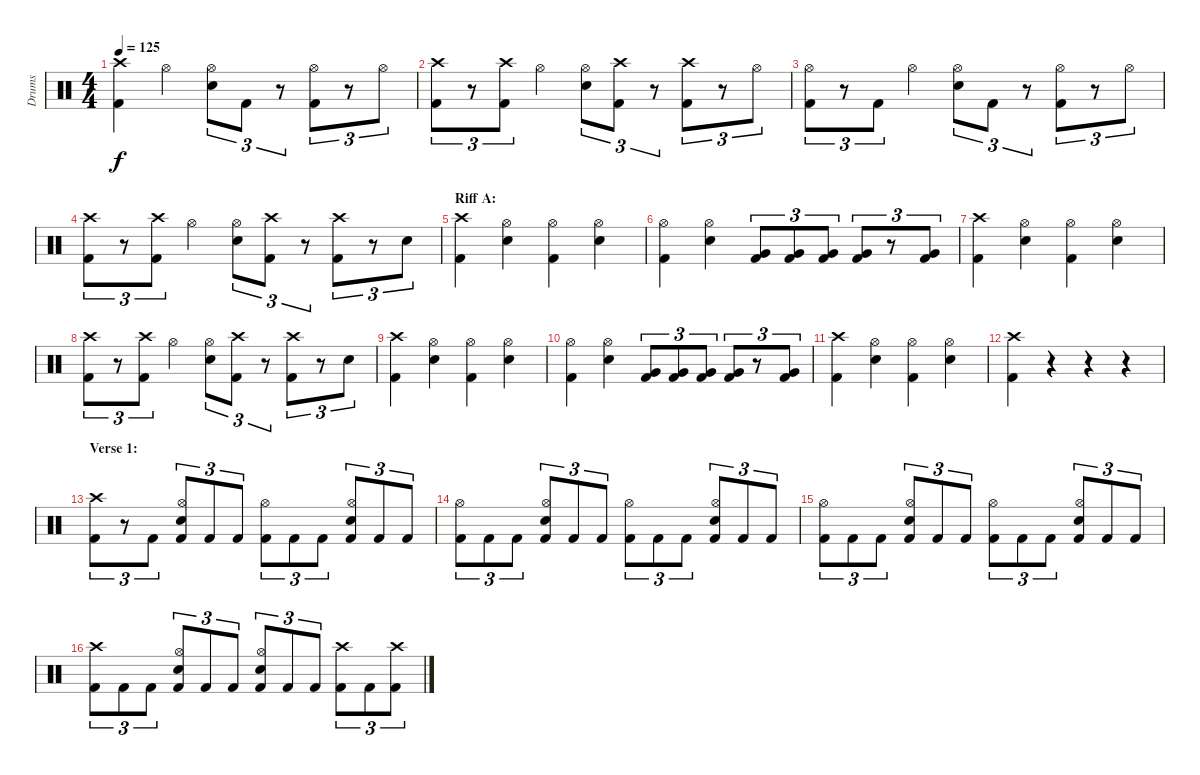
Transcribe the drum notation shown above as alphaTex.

\track ("Drums" "Drums") {instrument percussion}
\staff {score}
\articulation defaults
\ts (4 4)
\tempo 125
\clef neutral
\ks c
("Crash high (hit)" "Kick (hit) 2").4{dy f} "Hi-Hat (open)".4 ("Hi-Hat (open)" "Electric Snare (hit)").8{tu (3 2)} "Kick (hit) 2".8{tu (3 2)} r.8{tu (3 2)} ("Hi-Hat (open)" "Kick (hit) 2").8{tu (3 2)} r.8{tu (3 2)} "Hi-Hat (open)".8{tu (3 2)} |
("Crash high (hit)" "Kick (hit) 2").8{tu (3 2)} r.8{tu (3 2)} ("Crash high (hit)" "Kick (hit) 2").8{tu (3 2)} "Hi-Hat (open)".4 ("Hi-Hat (open)" "Electric Snare (hit)").8{tu (3 2)} ("Crash high (hit)" "Kick (hit) 2").8{tu (3 2)} r.8{tu (3 2)} ("Crash high (hit)" "Kick (hit) 2").8{tu (3 2)} r.8{tu (3 2)} "Hi-Hat (open)".8{tu (3 2)} |
("Hi-Hat (open)" "Kick (hit) 2").8{tu (3 2)} r.8{tu (3 2)} "Kick (hit) 2".8{tu (3 2)} "Hi-Hat (open)".4 ("Hi-Hat (open)" "Electric Snare (hit)").8{tu (3 2)} "Kick (hit) 2".8{tu (3 2)} r.8{tu (3 2)} ("Hi-Hat (open)" "Kick (hit) 2").8{tu (3 2)} r.8{tu (3 2)} "Hi-Hat (open)".8{tu (3 2)} |
("Crash high (hit)" "Kick (hit) 2").8{tu (3 2)} r.8{tu (3 2)} ("Crash high (hit)" "Kick (hit) 2").8{tu (3 2)} "Hi-Hat (open)".4 ("Hi-Hat (open)" "Electric Snare (hit)").8{tu (3 2)} ("Crash high (hit)" "Kick (hit) 2").8{tu (3 2)} r.8{tu (3 2)} ("Crash high (hit)" "Kick (hit) 2").8{tu (3 2)} r.8{tu (3 2)} "Electric Snare (hit)".8{tu (3 2)} |
\section ("" "Riff A:")
("Crash high (hit)" "Kick (hit) 2").4 ("Hi-Hat (open)" "Electric Snare (hit)").4 ("Hi-Hat (open)" "Kick (hit) 2").4 ("Hi-Hat (open)" "Electric Snare (hit)").4 |
("Hi-Hat (open)" "Kick (hit) 2").4 ("Hi-Hat (open)" "Electric Snare (hit)").4 ("Very Low Tom (hit)" "Kick (hit) 2").8{tu (3 2)} ("Very Low Tom (hit)" "Kick (hit) 2").8{tu (3 2)} ("Very Low Tom (hit)" "Kick (hit) 2").8{tu (3 2)} ("Very Low Tom (hit)" "Kick (hit) 2").8{tu (3 2)} r.8{tu (3 2)} ("Very Low Tom (hit)" "Kick (hit) 2").8{tu (3 2)} |
("Crash high (hit)" "Kick (hit) 2").4 ("Hi-Hat (open)" "Electric Snare (hit)").4 ("Hi-Hat (open)" "Kick (hit) 2").4 ("Hi-Hat (open)" "Electric Snare (hit)").4 |
("Crash high (hit)" "Kick (hit) 2").8{tu (3 2)} r.8{tu (3 2)} ("Crash high (hit)" "Kick (hit) 2").8{tu (3 2)} "Hi-Hat (open)".4 ("Hi-Hat (open)" "Electric Snare (hit)").8{tu (3 2)} ("Crash high (hit)" "Kick (hit) 2").8{tu (3 2)} r.8{tu (3 2)} ("Crash high (hit)" "Kick (hit) 2").8{tu (3 2)} r.8{tu (3 2)} "Electric Snare (hit)".8{tu (3 2)} |
("Crash high (hit)" "Kick (hit) 2").4 ("Hi-Hat (open)" "Electric Snare (hit)").4 ("Hi-Hat (open)" "Kick (hit) 2").4 ("Hi-Hat (open)" "Electric Snare (hit)").4 |
("Hi-Hat (open)" "Kick (hit) 2").4 ("Hi-Hat (open)" "Electric Snare (hit)").4 ("Very Low Tom (hit)" "Kick (hit) 2").8{tu (3 2)} ("Very Low Tom (hit)" "Kick (hit) 2").8{tu (3 2)} ("Very Low Tom (hit)" "Kick (hit) 2").8{tu (3 2)} ("Very Low Tom (hit)" "Kick (hit) 2").8{tu (3 2)} r.8{tu (3 2)} ("Very Low Tom (hit)" "Kick (hit) 2").8{tu (3 2)} |
("Crash high (hit)" "Kick (hit) 2").4 ("Hi-Hat (open)" "Electric Snare (hit)").4 ("Hi-Hat (open)" "Kick (hit) 2").4 ("Hi-Hat (open)" "Electric Snare (hit)").4 |
("Crash high (hit)" "Kick (hit) 2").4 r.4 r.4 r.4 |
\section ("" "Verse 1:")
("Crash high (hit)" "Kick (hit) 2").8{tu (3 2)} r.8{tu (3 2)} "Kick (hit) 2".8{tu (3 2)} ("Hi-Hat (open)" "Electric Snare (hit)" "Kick (hit) 2").8{tu (3 2)} "Kick (hit) 2".8{tu (3 2)} "Kick (hit) 2".8{tu (3 2)} ("Hi-Hat (open)" "Kick (hit) 2").8{tu (3 2)} "Kick (hit) 2".8{tu (3 2)} "Kick (hit) 2".8{tu (3 2)} ("Hi-Hat (open)" "Electric Snare (hit)" "Kick (hit) 2").8{tu (3 2)} "Kick (hit) 2".8{tu (3 2)} "Kick (hit) 2".8{tu (3 2)} |
("Hi-Hat (open)" "Kick (hit) 2").8{tu (3 2)} "Kick (hit) 2".8{tu (3 2)} "Kick (hit) 2".8{tu (3 2)} ("Hi-Hat (open)" "Electric Snare (hit)" "Kick (hit) 2").8{tu (3 2)} "Kick (hit) 2".8{tu (3 2)} "Kick (hit) 2".8{tu (3 2)} ("Hi-Hat (open)" "Kick (hit) 2").8{tu (3 2)} "Kick (hit) 2".8{tu (3 2)} "Kick (hit) 2".8{tu (3 2)} ("Hi-Hat (open)" "Electric Snare (hit)" "Kick (hit) 2").8{tu (3 2)} "Kick (hit) 2".8{tu (3 2)} "Kick (hit) 2".8{tu (3 2)} |
("Hi-Hat (open)" "Kick (hit) 2").8{tu (3 2)} "Kick (hit) 2".8{tu (3 2)} "Kick (hit) 2".8{tu (3 2)} ("Hi-Hat (open)" "Electric Snare (hit)" "Kick (hit) 2").8{tu (3 2)} "Kick (hit) 2".8{tu (3 2)} "Kick (hit) 2".8{tu (3 2)} ("Hi-Hat (open)" "Kick (hit) 2").8{tu (3 2)} "Kick (hit) 2".8{tu (3 2)} "Kick (hit) 2".8{tu (3 2)} ("Hi-Hat (open)" "Electric Snare (hit)" "Kick (hit) 2").8{tu (3 2)} "Kick (hit) 2".8{tu (3 2)} "Kick (hit) 2".8{tu (3 2)} |
("Crash high (hit)" "Kick (hit) 2").8{tu (3 2)} "Kick (hit) 2".8{tu (3 2)} "Kick (hit) 2".8{tu (3 2)} ("Hi-Hat (open)" "Electric Snare (hit)" "Kick (hit) 2").8{tu (3 2)} "Kick (hit) 2".8{tu (3 2)} "Kick (hit) 2".8{tu (3 2)} ("Hi-Hat (open)" "Electric Snare (hit)" "Kick (hit) 2").8{tu (3 2)} "Kick (hit) 2".8{tu (3 2)} "Kick (hit) 2".8{tu (3 2)} ("Crash high (hit)" "Kick (hit) 2").8{tu (3 2)} "Kick (hit) 2".8{tu (3 2)} ("Crash high (hit)" "Kick (hit) 2").8{tu (3 2)}
